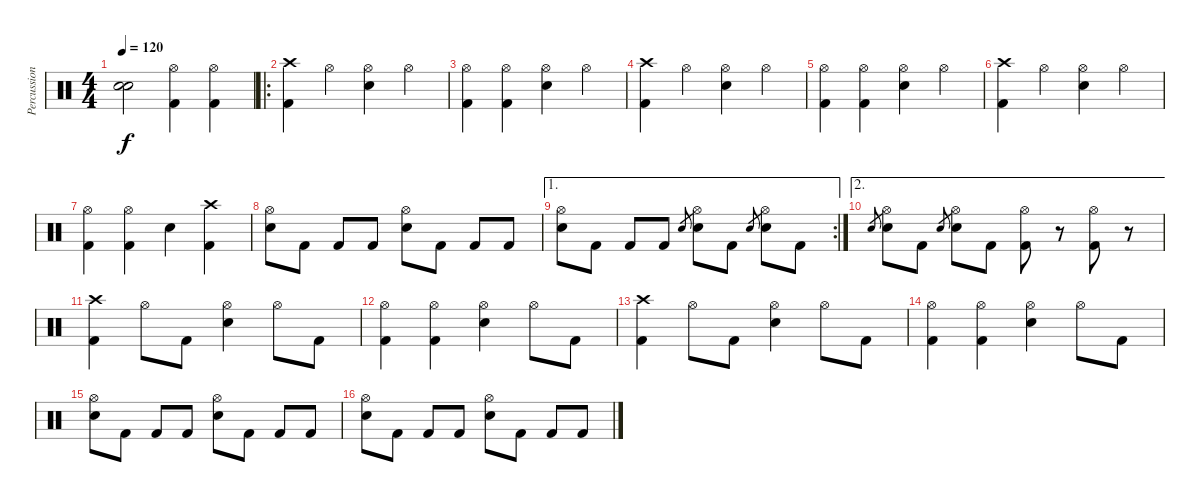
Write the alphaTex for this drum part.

\track ("Percussion" "Percussion") {instrument percussion}
\staff {score}
\articulation defaults
\ts (4 4)
\tempo 120
\clef neutral
\ks c
("Snare (hit)"{t} "Snare (hit)"{t}).2{dy f} ("Hi-Hat (open)" "Kick (hit) 2").4 ("Hi-Hat (open)" "Kick (hit) 2").4 |
\ro
("Crash high (hit)" "Kick (hit) 2").4 "Hi-Hat (open)".4 ("Hi-Hat (open)" "Electric Snare (hit)").4 "Hi-Hat (open)".4 |
("Hi-Hat (open)" "Kick (hit) 2").4 ("Hi-Hat (open)" "Kick (hit) 2").4 ("Hi-Hat (open)" "Electric Snare (hit)").4 "Hi-Hat (open)".4 |
("Crash high (hit)" "Kick (hit) 2").4 "Hi-Hat (open)".4 ("Hi-Hat (open)" "Electric Snare (hit)").4 "Hi-Hat (open)".4 |
("Hi-Hat (open)" "Kick (hit) 2").4 ("Hi-Hat (open)" "Kick (hit) 2").4 ("Hi-Hat (open)" "Electric Snare (hit)").4 "Hi-Hat (open)".4 |
("Crash high (hit)" "Kick (hit) 2").4 "Hi-Hat (open)".4 ("Hi-Hat (open)" "Electric Snare (hit)").4 "Hi-Hat (open)".4 |
("Hi-Hat (open)" "Kick (hit) 2").4 ("Hi-Hat (open)" "Kick (hit) 2").4 "Electric Snare (hit)".4 ("Crash high (hit)" "Kick (hit) 2").4 |
("Hi-Hat (open)" "Electric Snare (hit)").8 "Kick (hit) 2".8 "Kick (hit) 2".8 "Kick (hit) 2".8 ("Hi-Hat (open)" "Electric Snare (hit)").8 "Kick (hit) 2".8 "Kick (hit) 2".8 "Kick (hit) 2".8 |
\ae 1
\rc 2
("Hi-Hat (open)" "Electric Snare (hit)").8 "Kick (hit) 2".8 "Kick (hit) 2".8 "Kick (hit) 2".8 "Electric Snare (hit)".8{gr} ("Hi-Hat (open)" "Electric Snare (hit)").8 "Kick (hit) 2".8 "Electric Snare (hit)".8{gr} ("Hi-Hat (open)" "Electric Snare (hit)").8 "Kick (hit) 2".8 |
\ae 2 "Electric Snare (hit)".8{gr}
("Hi-Hat (open)" "Electric Snare (hit)").8 "Kick (hit) 2".8 "Electric Snare (hit)".8{gr} ("Hi-Hat (open)" "Electric Snare (hit)").8 "Kick (hit) 2".8 ("Hi-Hat (open)" "Kick (hit) 2").8 r.8 ("Hi-Hat (open)" "Kick (hit) 2").8 r.8 |
("Crash high (hit)" "Kick (hit) 2").4 "Hi-Hat (open)".8 "Kick (hit) 2".8 ("Hi-Hat (open)" "Electric Snare (hit)").4 "Hi-Hat (open)".8 "Kick (hit) 2".8 |
("Hi-Hat (open)" "Kick (hit) 2").4 ("Hi-Hat (open)" "Kick (hit) 2").4 ("Hi-Hat (open)" "Electric Snare (hit)").4 "Hi-Hat (open)".8 "Kick (hit) 2".8 |
("Crash high (hit)" "Kick (hit) 2").4 "Hi-Hat (open)".8 "Kick (hit) 2".8 ("Hi-Hat (open)" "Electric Snare (hit)").4 "Hi-Hat (open)".8 "Kick (hit) 2".8 |
("Hi-Hat (open)" "Kick (hit) 2").4 ("Hi-Hat (open)" "Kick (hit) 2").4 ("Hi-Hat (open)" "Electric Snare (hit)").4 "Hi-Hat (open)".8 "Kick (hit) 2".8 |
("Hi-Hat (open)" "Electric Snare (hit)").8 "Kick (hit) 2".8 "Kick (hit) 2".8 "Kick (hit) 2".8 ("Hi-Hat (open)" "Electric Snare (hit)").8 "Kick (hit) 2".8 "Kick (hit) 2".8 "Kick (hit) 2".8 |
("Hi-Hat (open)" "Electric Snare (hit)").8 "Kick (hit) 2".8 "Kick (hit) 2".8 "Kick (hit) 2".8 ("Hi-Hat (open)" "Electric Snare (hit)").8 "Kick (hit) 2".8 "Kick (hit) 2".8 "Kick (hit) 2".8
